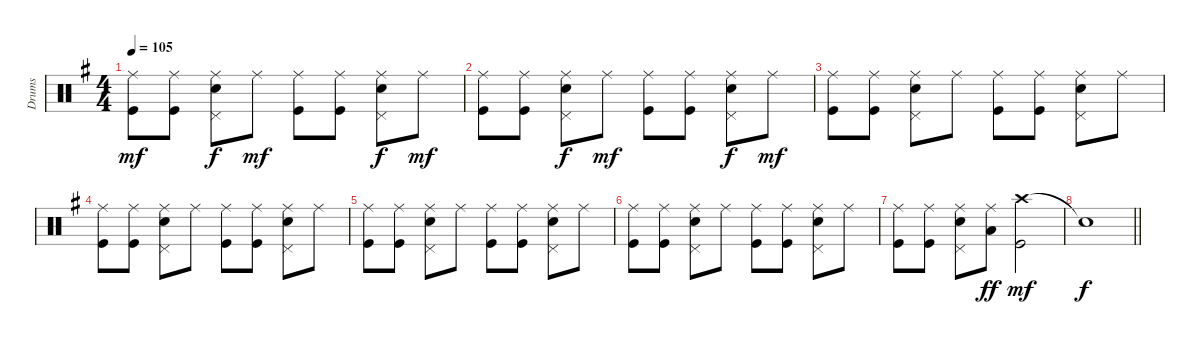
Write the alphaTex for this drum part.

\track ("Drums" "Drums") {instrument percussion}
\staff {score}
\articulation defaults
\ts (4 4)
\tempo 105
\clef neutral
\ks eminor
("Ride (middle)" "Kick (hit)").8{dy mf} ("Ride (middle)" "Kick (hit)").8 ("Ride (middle)" "Pedal Hi-Hat (hit)" "Snare (hit) 2").8{dy f} "Ride (middle)".8{dy mf} ("Ride (middle)" "Kick (hit)").8 ("Ride (middle)" "Kick (hit)").8 ("Ride (middle)" "Pedal Hi-Hat (hit)" "Snare (hit) 2").8{dy f} "Ride (middle)".8{dy mf} |
("Ride (middle)" "Kick (hit)").8 ("Ride (middle)" "Kick (hit)").8 ("Ride (middle)" "Pedal Hi-Hat (hit)" "Snare (hit) 2").8{dy f} "Ride (middle)".8{dy mf} ("Ride (middle)" "Kick (hit)").8 ("Ride (middle)" "Kick (hit)").8 ("Ride (middle)" "Pedal Hi-Hat (hit)" "Snare (hit) 2").8{dy f} "Ride (middle)".8{dy mf} |
("Ride (middle)" "Kick (hit)").8 ("Ride (middle)" "Kick (hit)").8 ("Ride (middle)" "Pedal Hi-Hat (hit)" "Snare (hit) 2").8 "Ride (middle)".8 ("Ride (middle)" "Kick (hit)").8 ("Ride (middle)" "Kick (hit)").8 ("Ride (middle)" "Pedal Hi-Hat (hit)" "Snare (hit) 2").8 "Ride (middle)".8 |
("Ride (middle)" "Kick (hit)").8 ("Ride (middle)" "Kick (hit)").8 ("Ride (middle)" "Pedal Hi-Hat (hit)" "Snare (hit) 2").8 "Ride (middle)".8 ("Ride (middle)" "Kick (hit)").8 ("Ride (middle)" "Kick (hit)").8 ("Ride (middle)" "Pedal Hi-Hat (hit)" "Snare (hit) 2").8 "Ride (middle)".8 |
("Ride (middle)" "Kick (hit)").8 ("Ride (middle)" "Kick (hit)").8 ("Ride (middle)" "Pedal Hi-Hat (hit)" "Snare (hit) 2").8 "Ride (middle)".8 ("Ride (middle)" "Kick (hit)").8 ("Ride (middle)" "Kick (hit)").8 ("Ride (middle)" "Pedal Hi-Hat (hit)" "Snare (hit) 2").8 "Ride (middle)".8 |
("Ride (middle)" "Kick (hit)").8 ("Ride (middle)" "Kick (hit)").8 ("Ride (middle)" "Pedal Hi-Hat (hit)" "Snare (hit) 2").8 "Ride (middle)".8 ("Ride (middle)" "Kick (hit)").8 ("Ride (middle)" "Kick (hit)").8 ("Ride (middle)" "Pedal Hi-Hat (hit)" "Snare (hit) 2").8 "Ride (middle)".8 |
("Ride (middle)" "Kick (hit)").8 ("Ride (middle)" "Kick (hit)").8 ("Ride (middle)" "Pedal Hi-Hat (hit)" "Snare (hit) 2").8 ("Ride (middle)" "Low Tom (hit)").8{dy ff} ("Crash high (hit)" "Kick (hit)").2{dy mf} |
\barLineRight lightlight "Snare (hit)"{t}.1{dy f}
